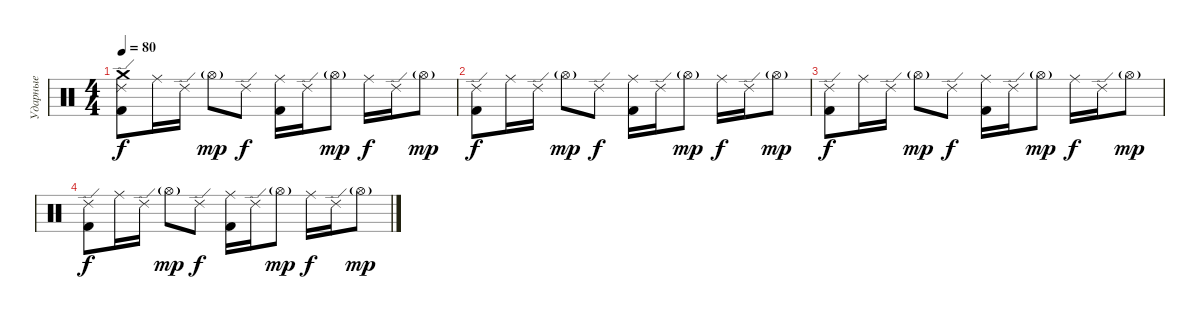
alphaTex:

\track ("Ударные" "Ударные") {instrument percussion}
\staff {score}
\articulation defaults
\ts (4 4)
\tempo 80
\clef neutral
\ks c
("Ride (edge) 2" "Crash medium (hit)" "Kick (hit) 2").8{dy f} "Ride (middle)".16 "Ride (edge) 2".16 "Hi-Hat (open)"{g}.8{dy mp} "Ride (edge) 2".8{dy f} ("Ride (middle)" "Kick (hit) 2").16 "Ride (edge) 2".16 "Hi-Hat (open)"{g}.8{dy mp} "Ride (middle)".16{dy f} "Ride (edge) 2".16 "Hi-Hat (open)"{g}.8{dy mp} |
("Ride (edge) 2" "Kick (hit) 2").8{dy f} "Ride (middle)".16 "Ride (edge) 2".16 "Hi-Hat (open)"{g}.8{dy mp} "Ride (edge) 2".8{dy f} ("Ride (middle)" "Kick (hit) 2").16 "Ride (edge) 2".16 "Hi-Hat (open)"{g}.8{dy mp} "Ride (middle)".16{dy f} "Ride (edge) 2".16 "Hi-Hat (open)"{g}.8{dy mp} |
("Ride (edge) 2" "Kick (hit) 2").8{dy f} "Ride (middle)".16 "Ride (edge) 2".16 "Hi-Hat (open)"{g}.8{dy mp} "Ride (edge) 2".8{dy f} ("Ride (middle)" "Kick (hit) 2").16 "Ride (edge) 2".16 "Hi-Hat (open)"{g}.8{dy mp} "Ride (middle)".16{dy f} "Ride (edge) 2".16 "Hi-Hat (open)"{g}.8{dy mp} |
("Ride (edge) 2" "Kick (hit) 2").8{dy f} "Ride (middle)".16 "Ride (edge) 2".16 "Hi-Hat (open)"{g}.8{dy mp} "Ride (edge) 2".8{dy f} ("Ride (middle)" "Kick (hit) 2").16 "Ride (edge) 2".16 "Hi-Hat (open)"{g}.8{dy mp} "Ride (middle)".16{dy f} "Ride (edge) 2".16 "Hi-Hat (open)"{g}.8{dy mp}
